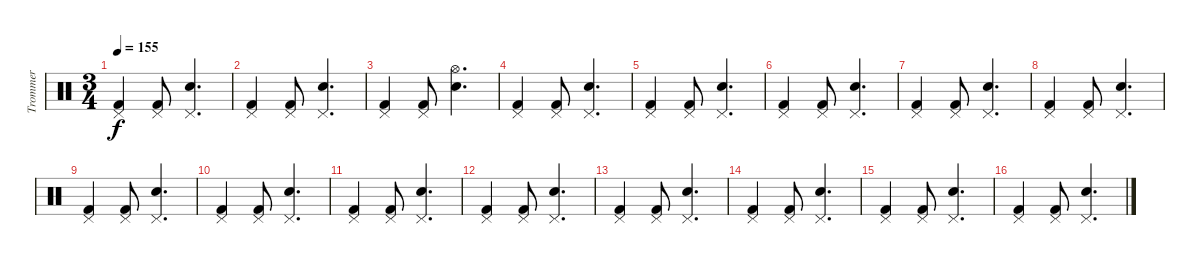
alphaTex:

\track ("Trommer" "Trommer") {instrument percussion}
\staff {score}
\articulation defaults
\ts (3 4)
\tempo 155
\clef neutral
\ks c
("Kick (hit) 2" "Pedal Hi-Hat (hit)").4{dy f} ("Kick (hit) 2" "Pedal Hi-Hat (hit)").8 ("Snare (hit) 2" "Pedal Hi-Hat (hit)").4{d} |
("Kick (hit) 2" "Pedal Hi-Hat (hit)").4 ("Kick (hit) 2" "Pedal Hi-Hat (hit)").8 ("Snare (hit) 2" "Pedal Hi-Hat (hit)").4{d} |
("Kick (hit) 2" "Pedal Hi-Hat (hit)").4 ("Kick (hit) 2" "Pedal Hi-Hat (hit)").8 ("Snare (hit) 2" "Hi-Hat (open)").4{d} |
("Kick (hit) 2" "Pedal Hi-Hat (hit)").4 ("Kick (hit) 2" "Pedal Hi-Hat (hit)").8 ("Snare (hit) 2" "Pedal Hi-Hat (hit)").4{d} |
("Kick (hit) 2" "Pedal Hi-Hat (hit)").4 ("Kick (hit) 2" "Pedal Hi-Hat (hit)").8 ("Snare (hit) 2" "Pedal Hi-Hat (hit)").4{d} |
("Kick (hit) 2" "Pedal Hi-Hat (hit)").4 ("Kick (hit) 2" "Pedal Hi-Hat (hit)").8 ("Snare (hit) 2" "Pedal Hi-Hat (hit)").4{d} |
("Kick (hit) 2" "Pedal Hi-Hat (hit)").4 ("Kick (hit) 2" "Pedal Hi-Hat (hit)").8 ("Snare (hit) 2" "Pedal Hi-Hat (hit)").4{d} |
("Kick (hit) 2" "Pedal Hi-Hat (hit)").4 ("Kick (hit) 2" "Pedal Hi-Hat (hit)").8 ("Snare (hit) 2" "Pedal Hi-Hat (hit)").4{d} |
("Kick (hit) 2" "Pedal Hi-Hat (hit)").4 ("Kick (hit) 2" "Pedal Hi-Hat (hit)").8 ("Snare (hit) 2" "Pedal Hi-Hat (hit)").4{d} |
("Kick (hit) 2" "Pedal Hi-Hat (hit)").4 ("Kick (hit) 2" "Pedal Hi-Hat (hit)").8 ("Snare (hit) 2" "Pedal Hi-Hat (hit)").4{d} |
("Kick (hit) 2" "Pedal Hi-Hat (hit)").4 ("Kick (hit) 2" "Pedal Hi-Hat (hit)").8 ("Snare (hit) 2" "Pedal Hi-Hat (hit)").4{d} |
("Kick (hit) 2" "Pedal Hi-Hat (hit)").4 ("Kick (hit) 2" "Pedal Hi-Hat (hit)").8 ("Snare (hit) 2" "Pedal Hi-Hat (hit)").4{d} |
("Kick (hit) 2" "Pedal Hi-Hat (hit)").4 ("Kick (hit) 2" "Pedal Hi-Hat (hit)").8 ("Snare (hit) 2" "Pedal Hi-Hat (hit)").4{d} |
("Kick (hit) 2" "Pedal Hi-Hat (hit)").4 ("Kick (hit) 2" "Pedal Hi-Hat (hit)").8 ("Snare (hit) 2" "Pedal Hi-Hat (hit)").4{d} |
("Kick (hit) 2" "Pedal Hi-Hat (hit)").4 ("Kick (hit) 2" "Pedal Hi-Hat (hit)").8 ("Snare (hit) 2" "Pedal Hi-Hat (hit)").4{d} |
("Kick (hit) 2" "Pedal Hi-Hat (hit)").4 ("Kick (hit) 2" "Pedal Hi-Hat (hit)").8 ("Snare (hit) 2" "Pedal Hi-Hat (hit)").4{d}
